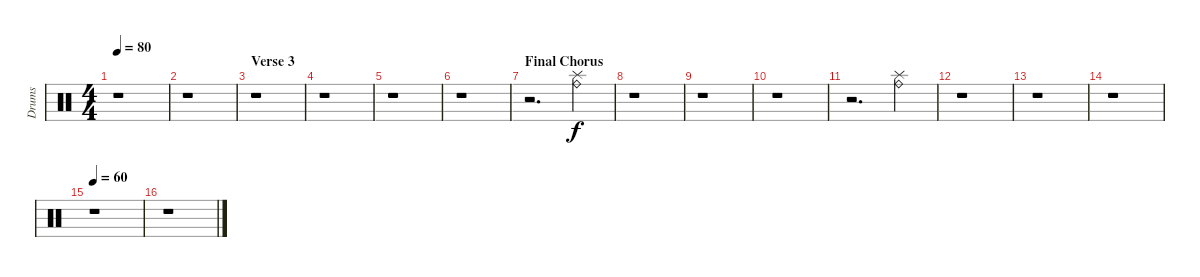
\track ("Drums" "Drums") {instrument percussion}
\staff {score}
\articulation defaults
\ts (4 4)
\tempo 80
\clef neutral
\ks c
r.1{dy f} |
r.1 |
\section ("" "Verse 3")
r.1 |
r.1 |
r.1 |
r.1 |
\section ("" "Final Chorus ")
r.2{d} ("Ride (bell)" "Splash (hit)").4 |
r.1 |
r.1 |
r.1 |
r.2{d} ("Ride (bell)" "Splash (hit)").4 |
r.1 |
r.1 |
r.1 |
\tempo 60
r.1 |
r.1
